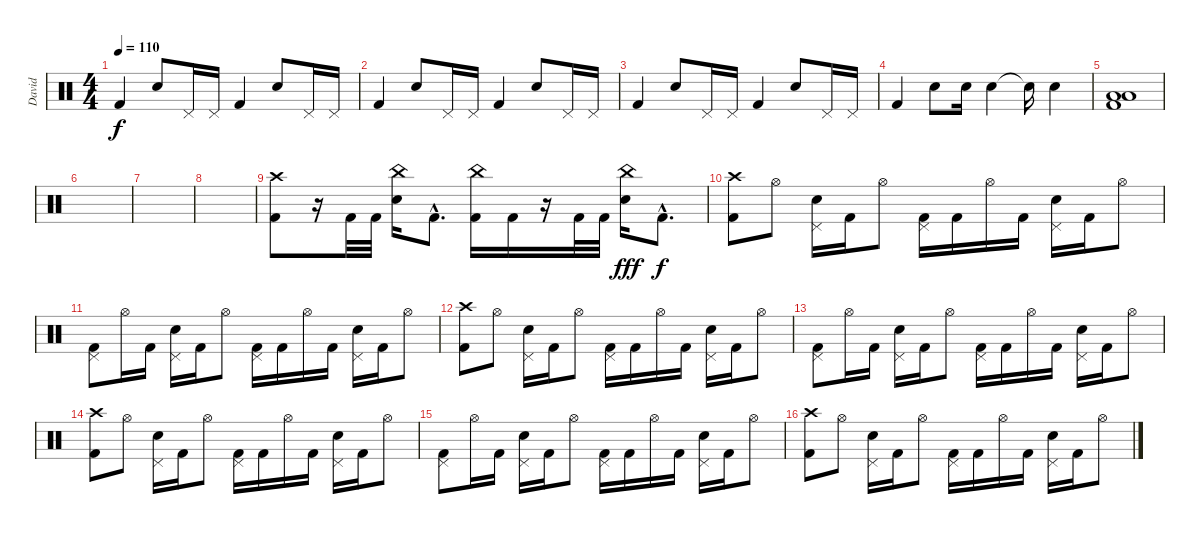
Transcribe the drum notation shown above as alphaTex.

\track ("David" "David") {instrument percussion}
\staff {score}
\articulation defaults
\ts (4 4)
\tempo 110
\clef neutral
\ks c "Kick (hit) 2".4{dy f} "Hand Clap (hit)".8 "Pedal Hi-Hat (hit)".16 "Pedal Hi-Hat (hit)".16 "Kick (hit) 2".4 "Hand Clap (hit)".8 "Pedal Hi-Hat (hit)".16 "Pedal Hi-Hat (hit)".16
|
"Kick (hit) 2".4 "Hand Clap (hit)".8 "Pedal Hi-Hat (hit)".16 "Pedal Hi-Hat (hit)".16 "Kick (hit) 2".4 "Hand Clap (hit)".8 "Pedal Hi-Hat (hit)".16 "Pedal Hi-Hat (hit)".16 |
"Kick (hit) 2".4 "Hand Clap (hit)".8 "Pedal Hi-Hat (hit)".16 "Pedal Hi-Hat (hit)".16 "Kick (hit) 2".4 "Hand Clap (hit)".8 "Pedal Hi-Hat (hit)".16 "Pedal Hi-Hat (hit)".16 |
"Kick (hit) 2".4 "Hand Clap (hit)".8 "Hand Clap (hit)".16 "Hand Clap (hit)".4 "Hand Clap (hit)"{t}.16 "Hand Clap (hit)".4 |
("Low Tom (hit)" "Low Floor Tom (hit)" "Kick (hit) 2").1 |
|
|
|
("Crash high (hit)" "Kick (hit) 2").8 r.16 "Kick (hit) 2".32 "Kick (hit) 2".32 ("China (hit)" "Electric Snare (hit)").16 "Kick (hit) 2"{hac}.8{d} ("China (hit)" "Kick (hit) 2").16 "Kick (hit) 2".16 r.16 "Kick (hit) 2".32 "Kick (hit) 2".32 ("China (hit)" "Electric Snare (hit)").16{dy fff} "Kick (hit) 2"{hac}.8{d dy f} |
("Crash high (hit)" "Kick (hit) 2").8 "Hi-Hat (open)".8 ("Pedal Hi-Hat (hit)" "Electric Snare (hit)").16 "Kick (hit) 2".16 "Hi-Hat (open)".8 ("Pedal Hi-Hat (hit)" "Kick (hit) 2").16 "Kick (hit) 2".16 "Hi-Hat (open)".16 "Kick (hit) 2".16 ("Pedal Hi-Hat (hit)" "Electric Snare (hit)").16 "Kick (hit) 2".16 "Hi-Hat (open)".8 |
("Pedal Hi-Hat (hit)" "Kick (hit) 2").8 "Hi-Hat (open)".16 "Kick (hit) 2".16 ("Pedal Hi-Hat (hit)" "Electric Snare (hit)").16 "Kick (hit) 2".16 "Hi-Hat (open)".8 ("Pedal Hi-Hat (hit)" "Kick (hit) 2").16 "Kick (hit) 2".16 "Hi-Hat (open)".16 "Kick (hit) 2".16 ("Pedal Hi-Hat (hit)" "Electric Snare (hit)").16 "Kick (hit) 2".16 "Hi-Hat (open)".8 |
("Crash high (hit)" "Kick (hit) 2").8 "Hi-Hat (open)".8 ("Pedal Hi-Hat (hit)" "Electric Snare (hit)").16 "Kick (hit) 2".16 "Hi-Hat (open)".8 ("Pedal Hi-Hat (hit)" "Kick (hit) 2").16 "Kick (hit) 2".16 "Hi-Hat (open)".16 "Kick (hit) 2".16 ("Pedal Hi-Hat (hit)" "Electric Snare (hit)").16 "Kick (hit) 2".16 "Hi-Hat (open)".8 |
("Pedal Hi-Hat (hit)" "Kick (hit) 2").8 "Hi-Hat (open)".16 "Kick (hit) 2".16 ("Pedal Hi-Hat (hit)" "Electric Snare (hit)").16 "Kick (hit) 2".16 "Hi-Hat (open)".8 ("Pedal Hi-Hat (hit)" "Kick (hit) 2").16 "Kick (hit) 2".16 "Hi-Hat (open)".16 "Kick (hit) 2".16 ("Pedal Hi-Hat (hit)" "Electric Snare (hit)").16 "Kick (hit) 2".16 "Hi-Hat (open)".8 |
("Crash high (hit)" "Kick (hit) 2").8 "Hi-Hat (open)".8 ("Pedal Hi-Hat (hit)" "Electric Snare (hit)").16 "Kick (hit) 2".16 "Hi-Hat (open)".8 ("Pedal Hi-Hat (hit)" "Kick (hit) 2").16 "Kick (hit) 2".16 "Hi-Hat (open)".16 "Kick (hit) 2".16 ("Pedal Hi-Hat (hit)" "Electric Snare (hit)").16 "Kick (hit) 2".16 "Hi-Hat (open)".8 |
("Pedal Hi-Hat (hit)" "Kick (hit) 2").8 "Hi-Hat (open)".16 "Kick (hit) 2".16 ("Pedal Hi-Hat (hit)" "Electric Snare (hit)").16 "Kick (hit) 2".16 "Hi-Hat (open)".8 ("Pedal Hi-Hat (hit)" "Kick (hit) 2").16 "Kick (hit) 2".16 "Hi-Hat (open)".16 "Kick (hit) 2".16 ("Pedal Hi-Hat (hit)" "Electric Snare (hit)").16 "Kick (hit) 2".16 "Hi-Hat (open)".8 |
("Crash high (hit)" "Kick (hit) 2").8 "Hi-Hat (open)".8 ("Pedal Hi-Hat (hit)" "Electric Snare (hit)").16 "Kick (hit) 2".16 "Hi-Hat (open)".8 ("Pedal Hi-Hat (hit)" "Kick (hit) 2").16 "Kick (hit) 2".16 "Hi-Hat (open)".16 "Kick (hit) 2".16 ("Pedal Hi-Hat (hit)" "Electric Snare (hit)").16 "Kick (hit) 2".16 "Hi-Hat (open)".8
